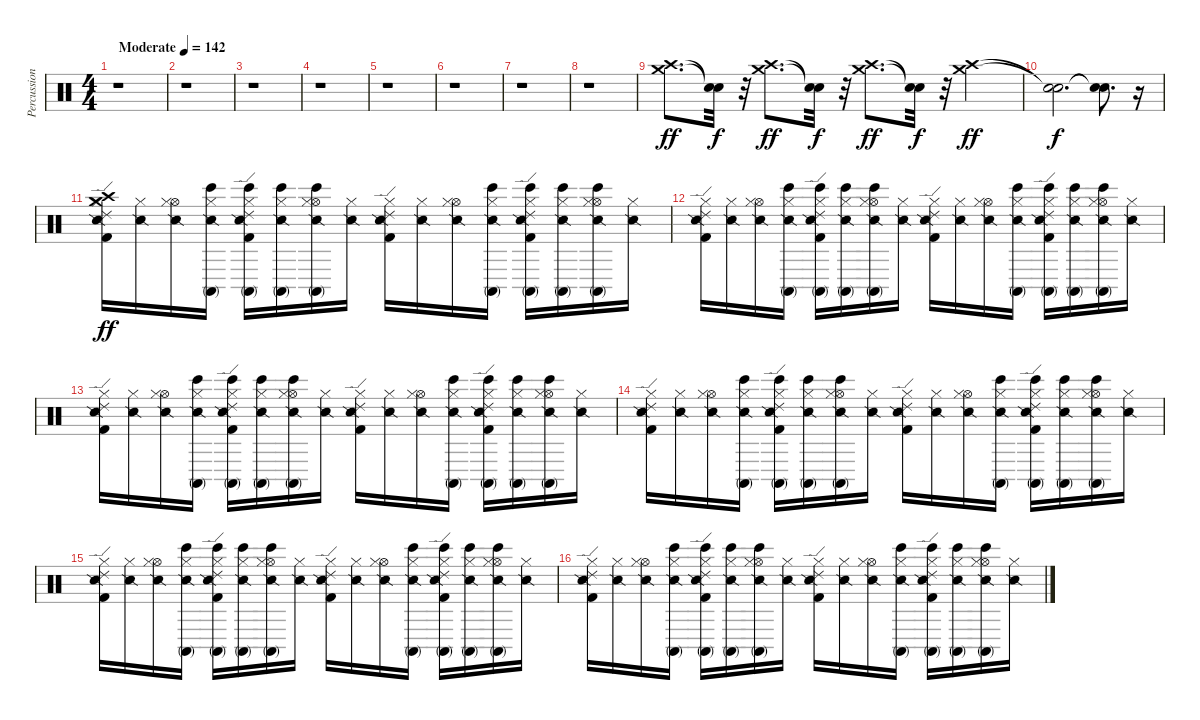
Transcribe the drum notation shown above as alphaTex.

\track ("Percussion" "Percussion") {instrument percussion}
\staff {score}
\articulation defaults
\ts (4 4)
\tempo (142 "Moderate")
\clef neutral
\ks c
r.1{dy ff} |
r.1 |
r.1 |
r.1 |
r.1 |
r.1 |
r.1 |
r.1 |
("Crash medium (hit)" "Crash high (hit)").8{d} ("Snare (hit)"{t} "Snare (hit)"{t}).32{dy f} r.32 ("Crash medium (hit)" "Crash high (hit)").8{d dy ff} ("Snare (hit)"{t} "Snare (hit)"{t}).32{dy f} r.32 ("Crash medium (hit)" "Crash high (hit)").8{d dy ff} ("Snare (hit)"{t} "Snare (hit)"{t}).32{dy f} r.32 ("Crash medium (hit)" "Crash high (hit)").4{dy ff} |
("Snare (hit)"{t} "Snare (hit)"{t}).2{d dy f} ("Snare (hit)"{t} "Snare (hit)"{t}).8{d} r.16 |
("Ride (edge) 2" "Crash medium (hit)" "Crash high (hit)" "Hi-Hat (closed)" "Snare (side stick) 2" "Kick (hit) 2").16{dy ff} ("Hi-Hat (closed)" "Snare (side stick) 2").16 ("Hi-Hat (open)" "Hi-Hat (closed)" "Snare (side stick) 2").16 ("Conga high (mute)" "Bongo High (hit)" "Hi-Hat (closed)" "Snare (side stick) 2").16 ("Conga high (mute)" "Bongo High (hit)" "Ride (edge) 2" "Hi-Hat (closed)" "Snare (side stick) 2" "Kick (hit) 2").16 ("Conga high (mute)" "Bongo High (hit)" "Hi-Hat (closed)" "Snare (side stick) 2").16 ("Conga high (mute)" "Bongo High (hit)" "Hi-Hat (open)" "Hi-Hat (closed)" "Snare (side stick) 2").16 ("Hi-Hat (closed)" "Snare (side stick) 2").16 ("Ride (edge) 2" "Hi-Hat (closed)" "Snare (side stick) 2" "Kick (hit) 2").16 ("Hi-Hat (closed)" "Snare (side stick) 2").16 ("Hi-Hat (open)" "Hi-Hat (closed)" "Snare (side stick) 2").16 ("Conga high (mute)" "Bongo High (hit)" "Hi-Hat (closed)" "Snare (side stick) 2").16 ("Conga high (mute)" "Bongo High (hit)" "Ride (edge) 2" "Hi-Hat (closed)" "Snare (side stick) 2" "Kick (hit) 2").16 ("Conga high (mute)" "Bongo High (hit)" "Hi-Hat (closed)" "Snare (side stick) 2").16 ("Conga high (mute)" "Bongo High (hit)" "Hi-Hat (open)" "Hi-Hat (closed)" "Snare (side stick) 2").16 ("Hi-Hat (closed)" "Snare (side stick) 2").16 |
("Ride (edge) 2" "Hi-Hat (closed)" "Snare (side stick) 2" "Kick (hit) 2").16 ("Hi-Hat (closed)" "Snare (side stick) 2").16 ("Hi-Hat (open)" "Hi-Hat (closed)" "Snare (side stick) 2").16 ("Conga high (mute)" "Bongo High (hit)" "Hi-Hat (closed)" "Snare (side stick) 2").16 ("Conga high (mute)" "Bongo High (hit)" "Ride (edge) 2" "Hi-Hat (closed)" "Snare (side stick) 2" "Kick (hit) 2").16 ("Conga high (mute)" "Bongo High (hit)" "Hi-Hat (closed)" "Snare (side stick) 2").16 ("Conga high (mute)" "Bongo High (hit)" "Hi-Hat (open)" "Hi-Hat (closed)" "Snare (side stick) 2").16 ("Hi-Hat (closed)" "Snare (side stick) 2").16 ("Ride (edge) 2" "Hi-Hat (closed)" "Snare (side stick) 2" "Kick (hit) 2").16 ("Hi-Hat (closed)" "Snare (side stick) 2").16 ("Hi-Hat (open)" "Hi-Hat (closed)" "Snare (side stick) 2").16 ("Conga high (mute)" "Bongo High (hit)" "Hi-Hat (closed)" "Snare (side stick) 2").16 ("Conga high (mute)" "Bongo High (hit)" "Ride (edge) 2" "Hi-Hat (closed)" "Snare (side stick) 2" "Kick (hit) 2").16 ("Conga high (mute)" "Bongo High (hit)" "Hi-Hat (closed)" "Snare (side stick) 2").16 ("Conga high (mute)" "Bongo High (hit)" "Hi-Hat (open)" "Hi-Hat (closed)" "Snare (side stick) 2").16 ("Hi-Hat (closed)" "Snare (side stick) 2").16 |
("Ride (edge) 2" "Hi-Hat (closed)" "Snare (side stick) 2" "Kick (hit) 2").16 ("Hi-Hat (closed)" "Snare (side stick) 2").16 ("Hi-Hat (open)" "Hi-Hat (closed)" "Snare (side stick) 2").16 ("Conga high (mute)" "Bongo High (hit)" "Hi-Hat (closed)" "Snare (side stick) 2").16 ("Conga high (mute)" "Bongo High (hit)" "Ride (edge) 2" "Hi-Hat (closed)" "Snare (side stick) 2" "Kick (hit) 2").16 ("Conga high (mute)" "Bongo High (hit)" "Hi-Hat (closed)" "Snare (side stick) 2").16 ("Conga high (mute)" "Bongo High (hit)" "Hi-Hat (open)" "Hi-Hat (closed)" "Snare (side stick) 2").16 ("Hi-Hat (closed)" "Snare (side stick) 2").16 ("Ride (edge) 2" "Hi-Hat (closed)" "Snare (side stick) 2" "Kick (hit) 2").16 ("Hi-Hat (closed)" "Snare (side stick) 2").16 ("Hi-Hat (open)" "Hi-Hat (closed)" "Snare (side stick) 2").16 ("Conga high (mute)" "Bongo High (hit)" "Hi-Hat (closed)" "Snare (side stick) 2").16 ("Conga high (mute)" "Bongo High (hit)" "Ride (edge) 2" "Hi-Hat (closed)" "Snare (side stick) 2" "Kick (hit) 2").16 ("Conga high (mute)" "Bongo High (hit)" "Hi-Hat (closed)" "Snare (side stick) 2").16 ("Conga high (mute)" "Bongo High (hit)" "Hi-Hat (open)" "Hi-Hat (closed)" "Snare (side stick) 2").16 ("Hi-Hat (closed)" "Snare (side stick) 2").16 |
("Ride (edge) 2" "Hi-Hat (closed)" "Snare (side stick) 2" "Kick (hit) 2").16 ("Hi-Hat (closed)" "Snare (side stick) 2").16 ("Hi-Hat (open)" "Hi-Hat (closed)" "Snare (side stick) 2").16 ("Conga high (mute)" "Bongo High (hit)" "Hi-Hat (closed)" "Snare (side stick) 2").16 ("Conga high (mute)" "Bongo High (hit)" "Ride (edge) 2" "Hi-Hat (closed)" "Snare (side stick) 2" "Kick (hit) 2").16 ("Conga high (mute)" "Bongo High (hit)" "Hi-Hat (closed)" "Snare (side stick) 2").16 ("Conga high (mute)" "Bongo High (hit)" "Hi-Hat (open)" "Hi-Hat (closed)" "Snare (side stick) 2").16 ("Hi-Hat (closed)" "Snare (side stick) 2").16 ("Ride (edge) 2" "Hi-Hat (closed)" "Snare (side stick) 2" "Kick (hit) 2").16 ("Hi-Hat (closed)" "Snare (side stick) 2").16 ("Hi-Hat (open)" "Hi-Hat (closed)" "Snare (side stick) 2").16 ("Conga high (mute)" "Bongo High (hit)" "Hi-Hat (closed)" "Snare (side stick) 2").16 ("Conga high (mute)" "Bongo High (hit)" "Ride (edge) 2" "Hi-Hat (closed)" "Snare (side stick) 2" "Kick (hit) 2").16 ("Conga high (mute)" "Bongo High (hit)" "Hi-Hat (closed)" "Snare (side stick) 2").16 ("Conga high (mute)" "Bongo High (hit)" "Hi-Hat (open)" "Hi-Hat (closed)" "Snare (side stick) 2").16 ("Hi-Hat (closed)" "Snare (side stick) 2").16 |
("Ride (edge) 2" "Hi-Hat (closed)" "Snare (side stick) 2" "Kick (hit) 2").16 ("Hi-Hat (closed)" "Snare (side stick) 2").16 ("Hi-Hat (open)" "Hi-Hat (closed)" "Snare (side stick) 2").16 ("Conga high (mute)" "Bongo High (hit)" "Hi-Hat (closed)" "Snare (side stick) 2").16 ("Conga high (mute)" "Bongo High (hit)" "Ride (edge) 2" "Hi-Hat (closed)" "Snare (side stick) 2" "Kick (hit) 2").16 ("Conga high (mute)" "Bongo High (hit)" "Hi-Hat (closed)" "Snare (side stick) 2").16 ("Conga high (mute)" "Bongo High (hit)" "Hi-Hat (open)" "Hi-Hat (closed)" "Snare (side stick) 2").16 ("Hi-Hat (closed)" "Snare (side stick) 2").16 ("Ride (edge) 2" "Hi-Hat (closed)" "Snare (side stick) 2" "Kick (hit) 2").16 ("Hi-Hat (closed)" "Snare (side stick) 2").16 ("Hi-Hat (open)" "Hi-Hat (closed)" "Snare (side stick) 2").16 ("Conga high (mute)" "Bongo High (hit)" "Hi-Hat (closed)" "Snare (side stick) 2").16 ("Conga high (mute)" "Bongo High (hit)" "Ride (edge) 2" "Hi-Hat (closed)" "Snare (side stick) 2" "Kick (hit) 2").16 ("Conga high (mute)" "Bongo High (hit)" "Hi-Hat (closed)" "Snare (side stick) 2").16 ("Conga high (mute)" "Bongo High (hit)" "Hi-Hat (open)" "Hi-Hat (closed)" "Snare (side stick) 2").16 ("Hi-Hat (closed)" "Snare (side stick) 2").16 |
("Ride (edge) 2" "Hi-Hat (closed)" "Snare (side stick) 2" "Kick (hit) 2").16 ("Hi-Hat (closed)" "Snare (side stick) 2").16 ("Hi-Hat (open)" "Hi-Hat (closed)" "Snare (side stick) 2").16 ("Conga high (mute)" "Bongo High (hit)" "Hi-Hat (closed)" "Snare (side stick) 2").16 ("Conga high (mute)" "Bongo High (hit)" "Ride (edge) 2" "Hi-Hat (closed)" "Snare (side stick) 2" "Kick (hit) 2").16 ("Conga high (mute)" "Bongo High (hit)" "Hi-Hat (closed)" "Snare (side stick) 2").16 ("Conga high (mute)" "Bongo High (hit)" "Hi-Hat (open)" "Hi-Hat (closed)" "Snare (side stick) 2").16 ("Hi-Hat (closed)" "Snare (side stick) 2").16 ("Ride (edge) 2" "Hi-Hat (closed)" "Snare (side stick) 2" "Kick (hit) 2").16 ("Hi-Hat (closed)" "Snare (side stick) 2").16 ("Hi-Hat (open)" "Hi-Hat (closed)" "Snare (side stick) 2").16 ("Conga high (mute)" "Bongo High (hit)" "Hi-Hat (closed)" "Snare (side stick) 2").16 ("Conga high (mute)" "Bongo High (hit)" "Ride (edge) 2" "Hi-Hat (closed)" "Snare (side stick) 2" "Kick (hit) 2").16 ("Conga high (mute)" "Bongo High (hit)" "Hi-Hat (closed)" "Snare (side stick) 2").16 ("Conga high (mute)" "Bongo High (hit)" "Hi-Hat (open)" "Hi-Hat (closed)" "Snare (side stick) 2").16 ("Hi-Hat (closed)" "Snare (side stick) 2").16
